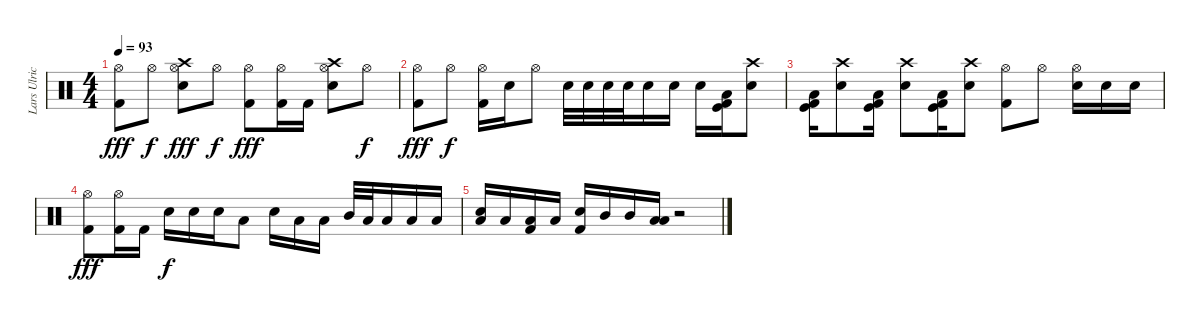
\track ("Lars Ulrich" "Lars Ulric") {instrument percussion}
\staff {score}
\articulation defaults
\ts (4 4)
\tempo 93
\clef neutral
\ks c
("Hi-Hat (open)" "Kick (hit) 2").8{dy fff} "Hi-Hat (open)".8{dy f} ("Crash high (hit)" "Hi-Hat (open)" "Snare (hit) 2").8{dy fff} "Hi-Hat (open)".8{dy f} ("Hi-Hat (open)" "Kick (hit) 2").8{dy fff} ("Hi-Hat (open)" "Kick (hit) 2").16 "Kick (hit) 2".16 ("Crash high (hit)" "Hi-Hat (open)" "Snare (hit) 2").8 "Hi-Hat (open)".8{dy f} |
("Hi-Hat (open)" "Kick (hit) 2").8{dy fff} "Hi-Hat (open)".8{dy f} ("Hi-Hat (open)" "Kick (hit) 2").16 "Snare (hit) 2".16 "Hi-Hat (open)".8 "Snare (hit) 2".32 "Snare (hit) 2".32 "Snare (hit) 2".32 "Snare (hit) 2".32 "Snare (hit) 2".16 "Snare (hit) 2".16 "Snare (hit) 2".16 ("Low Floor Tom (hit)" "Kick (hit)" "Kick (hit) 2").16 ("Crash high (hit)" "Snare (hit) 2").8 |
("Low Floor Tom (hit)" "Kick (hit)" "Kick (hit) 2").16 ("Crash high (hit)" "Snare (hit) 2").8 ("Low Floor Tom (hit)" "Kick (hit)" "Kick (hit) 2").16 ("Crash high (hit)" "Snare (hit) 2").8 ("Low Floor Tom (hit)" "Kick (hit)" "Kick (hit) 2").16 ("Crash high (hit)" "Snare (hit) 2").8 ("Hi-Hat (open)" "Kick (hit) 2").8 "Hi-Hat (open)".8 ("Hi-Hat (open)" "Snare (hit) 2").16 "Snare (hit) 2".16 "Snare (hit) 2".16 |
("Hi-Hat (open)" "Kick (hit) 2").8{dy fff} ("Hi-Hat (open)" "Kick (hit) 2").16 "Kick (hit) 2".16 "Snare (hit) 2".16{dy f} "Snare (hit) 2".16 "Snare (hit) 2".16 "Low Floor Tom (hit)".8 "Snare (hit) 2".16 "Low Tom (hit)".16 "Low Floor Tom (hit)".16 "Mid Tom (hit)".32 "Low Tom (hit)".32 "Low Tom (hit)".16 "Low Tom (hit)".16 "Low Floor Tom (hit)".16 |
("Snare (hit) 2" "Low Tom (hit)").16 "Low Floor Tom (hit)".16 ("Low Floor Tom (hit)" "Kick (hit) 2").16 "Low Tom (hit)".16 ("Snare (hit) 2" "Kick (hit) 2").16 "Mid Tom (hit)".16 "Mid Tom (hit)".16 ("Low Tom (hit)" "Low Floor Tom (hit)").16 r.2
